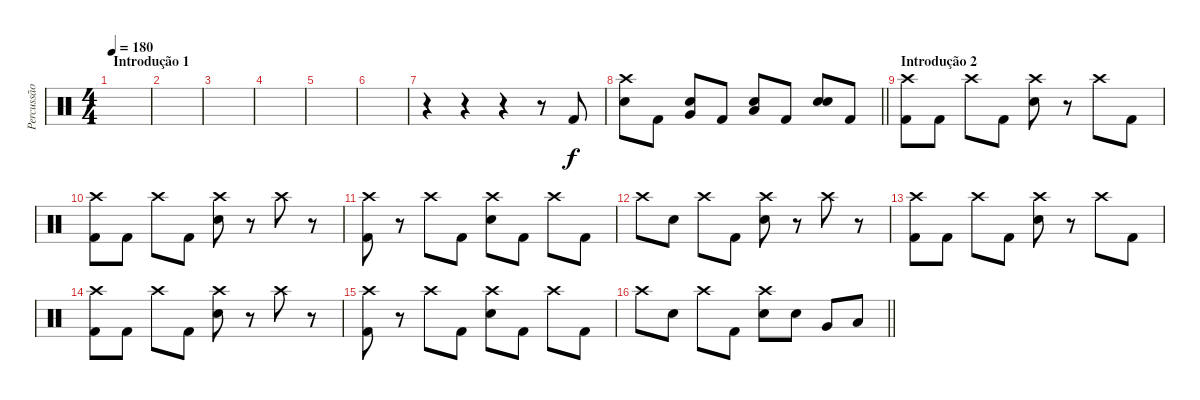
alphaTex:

\track ("Percussão" "Percussão") {instrument percussion}
\staff {score}
\articulation defaults
\ts (4 4)
\section ("" "Introdução 1")
\tempo 180
\clef neutral
\ks c
|
|
|
|
|
|
r.4 r.4 r.4 r.8 "Kick (hit) 2".8 |
\barLineRight lightlight
("Crash high (hit)" "Electric Snare (hit)").8 "Kick (hit) 2".8 ("Very Low Tom (hit)" "Electric Snare (hit)").8 "Kick (hit) 2".8 ("Low Floor Tom (hit)" "Electric Snare (hit)").8 "Kick (hit) 2".8 ("Electric Snare (hit)" "Electric Snare (hit)").8 "Kick (hit) 2".8 |
\section ("" "Introdução 2")
("Crash high (hit)" "Kick (hit) 2").8 "Kick (hit) 2".8 "Crash high (hit)".8 "Kick (hit) 2".8 ("Crash high (hit)" "Electric Snare (hit)").8 r.8 "Crash high (hit)".8 "Kick (hit) 2".8 |
("Crash high (hit)" "Kick (hit) 2").8 "Kick (hit) 2".8 "Crash high (hit)".8 "Kick (hit) 2".8 ("Crash high (hit)" "Electric Snare (hit)").8 r.8 "Crash high (hit)".8 r.8 |
("Crash high (hit)" "Kick (hit) 2").8 r.8 "Crash high (hit)".8 "Kick (hit) 2".8 ("Crash high (hit)" "Electric Snare (hit)").8 "Kick (hit) 2".8 "Crash high (hit)".8 "Kick (hit) 2".8 |
"Crash high (hit)".8 "Electric Snare (hit)".8 "Crash high (hit)".8 "Kick (hit) 2".8 ("Crash high (hit)" "Electric Snare (hit)").8 r.8 "Crash high (hit)".8 r.8 |
("Crash high (hit)" "Kick (hit) 2").8 "Kick (hit) 2".8 "Crash high (hit)".8 "Kick (hit) 2".8 ("Crash high (hit)" "Electric Snare (hit)").8 r.8 "Crash high (hit)".8 "Kick (hit) 2".8 |
("Crash high (hit)" "Kick (hit) 2").8 "Kick (hit) 2".8 "Crash high (hit)".8 "Kick (hit) 2".8 ("Crash high (hit)" "Electric Snare (hit)").8 r.8 "Crash high (hit)".8 r.8 |
("Crash high (hit)" "Kick (hit) 2").8 r.8 "Crash high (hit)".8 "Kick (hit) 2".8 ("Crash high (hit)" "Electric Snare (hit)").8 "Kick (hit) 2".8 "Crash high (hit)".8 "Kick (hit) 2".8 |
\barLineRight lightlight "Crash high (hit)".8 "Electric Snare (hit)".8 "Crash high (hit)".8 "Kick (hit) 2".8
("Crash high (hit)" "Electric Snare (hit)").8 "Electric Snare (hit)".8 "Very Low Tom (hit)".8 "Low Tom (hit)".8
